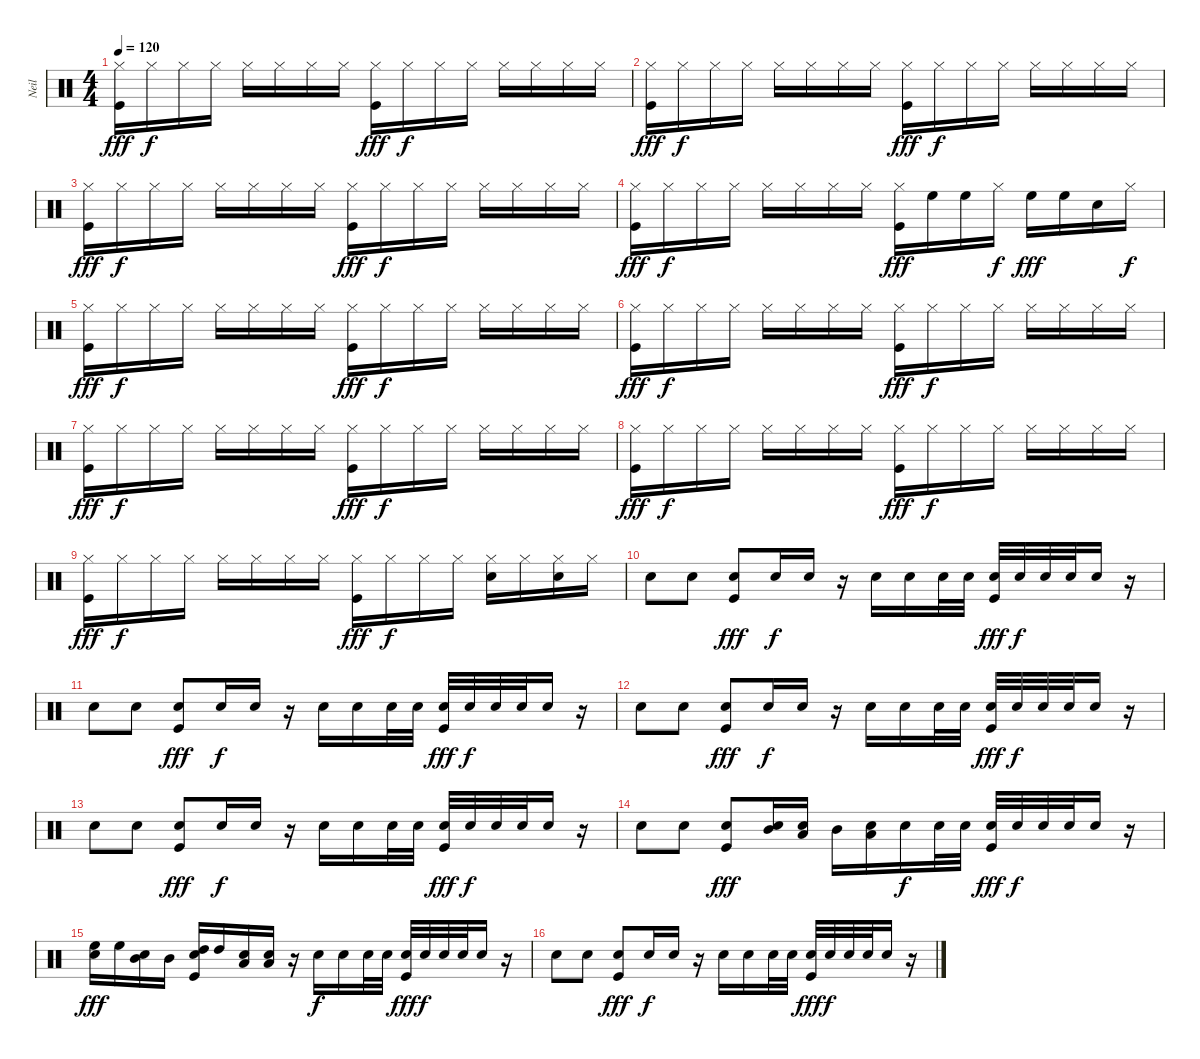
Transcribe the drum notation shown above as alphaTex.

\track ("Neil" "Neil") {instrument percussion}
\staff {score}
\articulation defaults
\ts (4 4)
\tempo 120
\clef neutral
\ks c
("Hi-Hat (closed)" "Kick (hit)").16{dy fff} "Hi-Hat (closed)".16{dy f} "Hi-Hat (closed)".16 "Hi-Hat (closed)".16 "Hi-Hat (closed)".16 "Hi-Hat (closed)".16 "Hi-Hat (closed)".16 "Hi-Hat (closed)".16 ("Hi-Hat (closed)" "Kick (hit)").16{dy fff} "Hi-Hat (closed)".16{dy f} "Hi-Hat (closed)".16 "Hi-Hat (closed)".16 "Hi-Hat (closed)".16 "Hi-Hat (closed)".16 "Hi-Hat (closed)".16 "Hi-Hat (closed)".16 |
("Kick (hit)" "Hi-Hat (closed)").16{dy fff} "Hi-Hat (closed)".16{dy f} "Hi-Hat (closed)".16 "Hi-Hat (closed)".16 "Hi-Hat (closed)".16 "Hi-Hat (closed)".16 "Hi-Hat (closed)".16 "Hi-Hat (closed)".16 ("Kick (hit)" "Hi-Hat (closed)").16{dy fff} "Hi-Hat (closed)".16{dy f} "Hi-Hat (closed)".16 "Hi-Hat (closed)".16 "Hi-Hat (closed)".16 "Hi-Hat (closed)".16 "Hi-Hat (closed)".16 "Hi-Hat (closed)".16 |
("Kick (hit)" "Hi-Hat (closed)").16{dy fff} "Hi-Hat (closed)".16{dy f} "Hi-Hat (closed)".16 "Hi-Hat (closed)".16 "Hi-Hat (closed)".16 "Hi-Hat (closed)".16 "Hi-Hat (closed)".16 "Hi-Hat (closed)".16 ("Kick (hit)" "Hi-Hat (closed)").16{dy fff} "Hi-Hat (closed)".16{dy f} "Hi-Hat (closed)".16 "Hi-Hat (closed)".16 "Hi-Hat (closed)".16 "Hi-Hat (closed)".16 "Hi-Hat (closed)".16 "Hi-Hat (closed)".16 |
("Kick (hit)" "Hi-Hat (closed)").16{dy fff} "Hi-Hat (closed)".16{dy f} "Hi-Hat (closed)".16 "Hi-Hat (closed)".16 "Hi-Hat (closed)".16 "Hi-Hat (closed)".16 "Hi-Hat (closed)".16 "Hi-Hat (closed)".16 ("Hi-Hat (closed)" "Kick (hit)").16{dy fff} "High Floor Tom (hit)".16 "High Floor Tom (hit)".16 "Hi-Hat (closed)".16{dy f} "High Floor Tom (hit)".16{dy fff} "High Floor Tom (hit)".16 "Snare (hit) 2".16 "Hi-Hat (closed)".16{dy f} |
("Kick (hit)" "Hi-Hat (closed)").16{dy fff} "Hi-Hat (closed)".16{dy f} "Hi-Hat (closed)".16 "Hi-Hat (closed)".16 "Hi-Hat (closed)".16 "Hi-Hat (closed)".16 "Hi-Hat (closed)".16 "Hi-Hat (closed)".16 ("Hi-Hat (closed)" "Kick (hit)").16{dy fff} "Hi-Hat (closed)".16{dy f} "Hi-Hat (closed)".16 "Hi-Hat (closed)".16 "Hi-Hat (closed)".16 "Hi-Hat (closed)".16 "Hi-Hat (closed)".16 "Hi-Hat (closed)".16 |
("Kick (hit)" "Hi-Hat (closed)").16{dy fff} "Hi-Hat (closed)".16{dy f} "Hi-Hat (closed)".16 "Hi-Hat (closed)".16 "Hi-Hat (closed)".16 "Hi-Hat (closed)".16 "Hi-Hat (closed)".16 "Hi-Hat (closed)".16 ("Kick (hit)" "Hi-Hat (closed)").16{dy fff} "Hi-Hat (closed)".16{dy f} "Hi-Hat (closed)".16 "Hi-Hat (closed)".16 "Hi-Hat (closed)".16 "Hi-Hat (closed)".16 "Hi-Hat (closed)".16 "Hi-Hat (closed)".16 |
("Kick (hit)" "Hi-Hat (closed)").16{dy fff} "Hi-Hat (closed)".16{dy f} "Hi-Hat (closed)".16 "Hi-Hat (closed)".16 "Hi-Hat (closed)".16 "Hi-Hat (closed)".16 "Hi-Hat (closed)".16 "Hi-Hat (closed)".16 ("Hi-Hat (closed)" "Kick (hit)").16{dy fff} "Hi-Hat (closed)".16{dy f} "Hi-Hat (closed)".16 "Hi-Hat (closed)".16 "Hi-Hat (closed)".16 "Hi-Hat (closed)".16 "Hi-Hat (closed)".16 "Hi-Hat (closed)".16 |
("Hi-Hat (closed)" "Kick (hit)").16{dy fff} "Hi-Hat (closed)".16{dy f} "Hi-Hat (closed)".16 "Hi-Hat (closed)".16 "Hi-Hat (closed)".16 "Hi-Hat (closed)".16 "Hi-Hat (closed)".16 "Hi-Hat (closed)".16 ("Hi-Hat (closed)" "Kick (hit)").16{dy fff} "Hi-Hat (closed)".16{dy f} "Hi-Hat (closed)".16 "Hi-Hat (closed)".16 "Hi-Hat (closed)".16 "Hi-Hat (closed)".16 "Hi-Hat (closed)".16 "Hi-Hat (closed)".16 |
("Kick (hit)" "Hi-Hat (closed)").16{dy fff} "Hi-Hat (closed)".16{dy f} "Hi-Hat (closed)".16 "Hi-Hat (closed)".16 "Hi-Hat (closed)".16 "Hi-Hat (closed)".16 "Hi-Hat (closed)".16 "Hi-Hat (closed)".16 ("Hi-Hat (closed)" "Kick (hit)").16{dy fff} "Hi-Hat (closed)".16{dy f} "Hi-Hat (closed)".16 "Hi-Hat (closed)".16 ("Snare (hit) 2" "Hi-Hat (closed)").16 "Hi-Hat (closed)".16 ("Snare (hit) 2" "Hi-Hat (closed)").16 "Hi-Hat (closed)".16 |
"Snare (hit) 2".8 "Snare (hit) 2".8 ("Kick (hit)" "Snare (hit) 2").8{dy fff} "Snare (hit) 2".16{dy f} "Snare (hit) 2".16 r.16 "Snare (hit) 2".16 "Snare (hit) 2".16 "Snare (hit) 2".32 "Snare (hit) 2".32 ("Snare (hit) 2" "Kick (hit)").32{dy fff} "Snare (hit) 2".32{dy f} "Snare (hit) 2".32 "Snare (hit) 2".32 "Snare (hit) 2".16 r.16 |
"Snare (hit) 2".8 "Snare (hit) 2".8 ("Snare (hit) 2" "Kick (hit)").8{dy fff} "Snare (hit) 2".16{dy f} "Snare (hit) 2".16 r.16 "Snare (hit) 2".16 "Snare (hit) 2".16 "Snare (hit) 2".32 "Snare (hit) 2".32 ("Snare (hit) 2" "Kick (hit)").32{dy fff} "Snare (hit) 2".32{dy f} "Snare (hit) 2".32 "Snare (hit) 2".32 "Snare (hit) 2".16 r.16 |
"Snare (hit) 2".8 "Snare (hit) 2".8 ("Snare (hit) 2" "Kick (hit)").8{dy fff} "Snare (hit) 2".16{dy f} "Snare (hit) 2".16 r.16 "Snare (hit) 2".16 "Snare (hit) 2".16 "Snare (hit) 2".32 "Snare (hit) 2".32 ("Snare (hit) 2" "Kick (hit)").32{dy fff} "Snare (hit) 2".32{dy f} "Snare (hit) 2".32 "Snare (hit) 2".32 "Snare (hit) 2".16 r.16 |
"Snare (hit) 2".8 "Snare (hit) 2".8 ("Snare (hit) 2" "Kick (hit)").8{dy fff} "Snare (hit) 2".16{dy f} "Snare (hit) 2".16 r.16 "Snare (hit) 2".16 "Snare (hit) 2".16 "Snare (hit) 2".32 "Snare (hit) 2".32 ("Kick (hit)" "Snare (hit) 2").32{dy fff} "Snare (hit) 2".32{dy f} "Snare (hit) 2".32 "Snare (hit) 2".32 "Snare (hit) 2".16 r.16 |
"Snare (hit) 2".8 "Snare (hit) 2".8 ("Snare (hit) 2" "Kick (hit)").8{dy fff} ("Snare (hit) 2" "Mid Tom (hit)").16 ("Snare (hit) 2" "Low Tom (hit)").16 "Mid Tom (hit)".16 ("Low Tom (hit)" "Snare (hit) 2").16 "Snare (hit) 2".16{dy f} "Snare (hit) 2".32 "Snare (hit) 2".32 ("Snare (hit) 2" "Kick (hit)").32{dy fff} "Snare (hit) 2".32{dy f} "Snare (hit) 2".32 "Snare (hit) 2".32 "Snare (hit) 2".16 r.16 |
("High Floor Tom (hit)" "Snare (hit) 2").16{dy fff} "High Floor Tom (hit)".16 ("Snare (hit) 2" "Mid Tom (hit)").16 "Mid Tom (hit)".16 ("Snare (hit) 2" "Kick (hit)" "High Tom (hit)").16 "High Tom (hit)".16 ("Snare (hit) 2" "Low Tom (hit)").16 ("Low Tom (hit)" "Snare (hit) 2").16 r.16 "Snare (hit) 2".16{dy f} "Snare (hit) 2".16 "Snare (hit) 2".32 "Snare (hit) 2".32 ("Snare (hit) 2" "Kick (hit)").32{dy fff} "Snare (hit) 2".32{dy f} "Snare (hit) 2".32 "Snare (hit) 2".32 "Snare (hit) 2".16 r.16 |
"Snare (hit) 2".8 "Snare (hit) 2".8 ("Kick (hit)" "Snare (hit) 2").8{dy fff} "Snare (hit) 2".16{dy f} "Snare (hit) 2".16 r.16 "Snare (hit) 2".16 "Snare (hit) 2".16 "Snare (hit) 2".32 "Snare (hit) 2".32 ("Snare (hit) 2" "Kick (hit)").32{dy fff} "Snare (hit) 2".32{dy f} "Snare (hit) 2".32 "Snare (hit) 2".32 "Snare (hit) 2".16 r.16
